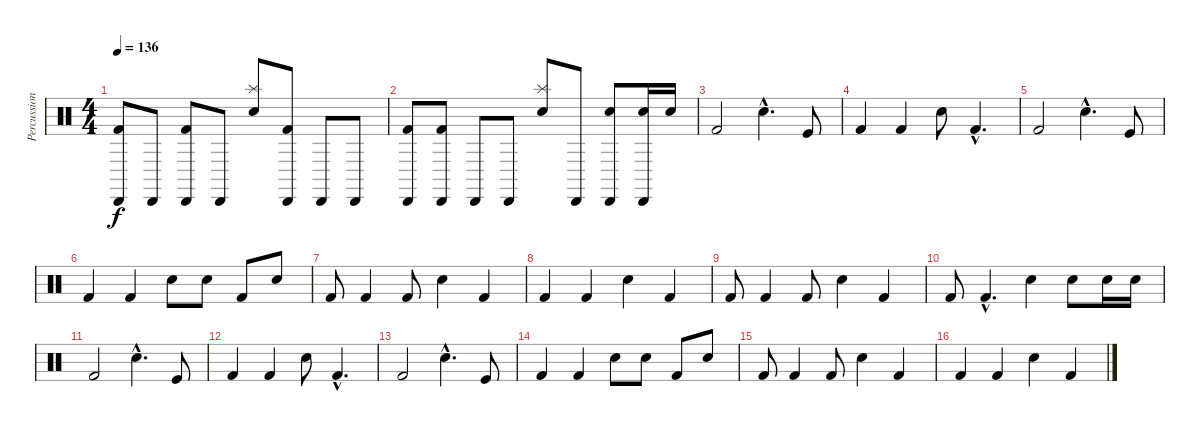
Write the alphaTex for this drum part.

\track ("Percussion 2" "Percussion") {instrument percussion}
\staff {score}
\articulation defaults
\ts (4 4)
\tempo 136
\clef neutral
\ks c
("Kick (hit) 2" "Cabasa (hit)").8{dy f} "Cabasa (hit)".8 ("Kick (hit) 2" "Cabasa (hit)").8 "Cabasa (hit)".8 ("Snare (hit) 2" "Splash (hit)").8 ("Kick (hit) 2" "Cabasa (hit)").8 "Cabasa (hit)".8 "Cabasa (hit)".8 |
("Kick (hit) 2" "Cabasa (hit)").8 ("Kick (hit) 2" "Cabasa (hit)").8 "Cabasa (hit)".8 "Cabasa (hit)".8 ("Snare (hit) 2" "Splash (hit)").8 "Cabasa (hit)".8 ("Snare (hit) 2" "Cabasa (hit)").8 ("Snare (hit) 2" "Cabasa (hit)").16 "Snare (hit) 2".16 |
"Kick (hit) 2".2 "Snare (hit) 2"{hac}.4{d} "Kick (hit)".8 |
"Kick (hit) 2".4 "Kick (hit) 2".4 "Snare (hit) 2".8 "Kick (hit) 2"{hac}.4{d} |
"Kick (hit) 2".2 "Snare (hit) 2"{hac}.4{d} "Kick (hit)".8 |
"Kick (hit) 2".4 "Kick (hit) 2".4 "Snare (hit) 2".8 "Snare (hit) 2".8 "Kick (hit) 2".8 "Snare (hit) 2".8 |
"Kick (hit) 2".8 "Kick (hit) 2".4 "Kick (hit) 2".8 "Snare (hit) 2".4 "Kick (hit) 2".4 |
"Kick (hit) 2".4 "Kick (hit) 2".4 "Snare (hit) 2".4 "Kick (hit) 2".4 |
"Kick (hit) 2".8 "Kick (hit) 2".4 "Kick (hit) 2".8 "Snare (hit) 2".4 "Kick (hit) 2".4 |
"Kick (hit) 2".8 "Kick (hit) 2"{hac}.4{d} "Snare (hit) 2".4 "Snare (hit) 2".8 "Snare (hit) 2".16 "Snare (hit) 2".16 |
"Kick (hit) 2".2 "Snare (hit) 2"{hac}.4{d} "Kick (hit)".8 |
"Kick (hit) 2".4 "Kick (hit) 2".4 "Snare (hit) 2".8 "Kick (hit) 2"{hac}.4{d} |
"Kick (hit) 2".2 "Snare (hit) 2"{hac}.4{d} "Kick (hit)".8 |
"Kick (hit) 2".4 "Kick (hit) 2".4 "Snare (hit) 2".8 "Snare (hit) 2".8 "Kick (hit) 2".8 "Snare (hit) 2".8 |
"Kick (hit) 2".8 "Kick (hit) 2".4 "Kick (hit) 2".8 "Snare (hit) 2".4 "Kick (hit) 2".4 |
"Kick (hit) 2".4 "Kick (hit) 2".4 "Snare (hit) 2".4 "Kick (hit) 2".4
